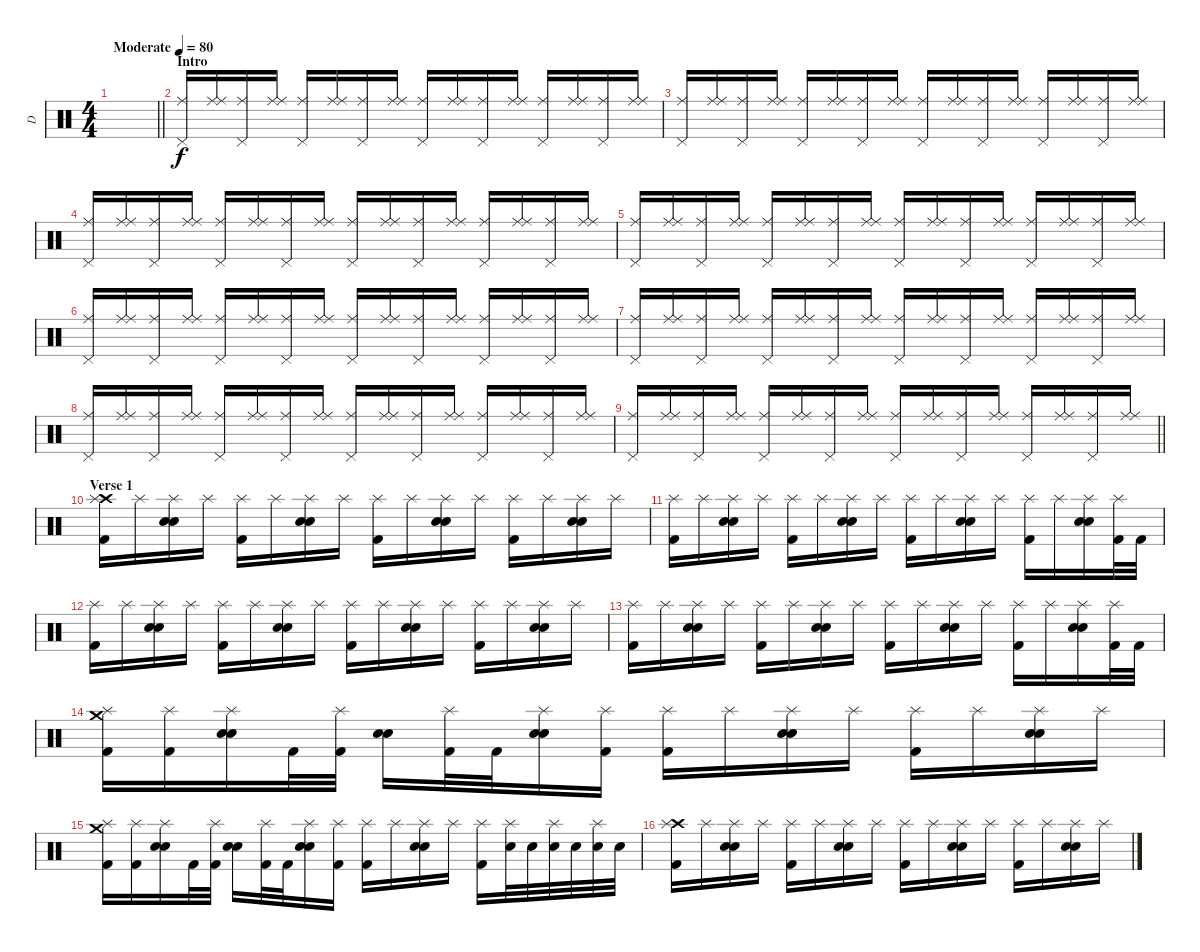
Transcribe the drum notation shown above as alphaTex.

\track ("D" "D") {instrument percussion}
\staff {score}
\articulation defaults
\ts (4 4)
\tempo (80 "Moderate")
\clef neutral
\barLineRight lightlight
\ks c
|
\section ("" "Intro")
("Pedal Hi-Hat (hit)" "Ride (middle)").16 ("Ride (middle)" "Ride (middle)").16 ("Pedal Hi-Hat (hit)" "Ride (middle)").16 ("Ride (middle)" "Ride (middle)").16 ("Pedal Hi-Hat (hit)" "Ride (middle)").16 ("Ride (middle)" "Ride (middle)").16 ("Pedal Hi-Hat (hit)" "Ride (middle)").16 ("Ride (middle)" "Ride (middle)").16 ("Pedal Hi-Hat (hit)" "Ride (middle)").16 ("Ride (middle)" "Ride (middle)").16 ("Pedal Hi-Hat (hit)" "Ride (middle)").16 ("Ride (middle)" "Ride (middle)").16 ("Pedal Hi-Hat (hit)" "Ride (middle)").16 ("Ride (middle)" "Ride (middle)").16 ("Pedal Hi-Hat (hit)" "Ride (middle)").16 ("Ride (middle)" "Ride (middle)").16 |
("Pedal Hi-Hat (hit)" "Ride (middle)").16 ("Ride (middle)" "Ride (middle)").16 ("Pedal Hi-Hat (hit)" "Ride (middle)").16 ("Ride (middle)" "Ride (middle)").16 ("Pedal Hi-Hat (hit)" "Ride (middle)").16 ("Ride (middle)" "Ride (middle)").16 ("Pedal Hi-Hat (hit)" "Ride (middle)").16 ("Ride (middle)" "Ride (middle)").16 ("Pedal Hi-Hat (hit)" "Ride (middle)").16 ("Ride (middle)" "Ride (middle)").16 ("Pedal Hi-Hat (hit)" "Ride (middle)").16 ("Ride (middle)" "Ride (middle)").16 ("Pedal Hi-Hat (hit)" "Ride (middle)").16 ("Ride (middle)" "Ride (middle)").16 ("Pedal Hi-Hat (hit)" "Ride (middle)").16 ("Ride (middle)" "Ride (middle)").16 |
("Pedal Hi-Hat (hit)" "Ride (middle)").16 ("Ride (middle)" "Ride (middle)").16 ("Pedal Hi-Hat (hit)" "Ride (middle)").16 ("Ride (middle)" "Ride (middle)").16 ("Pedal Hi-Hat (hit)" "Ride (middle)").16 ("Ride (middle)" "Ride (middle)").16 ("Pedal Hi-Hat (hit)" "Ride (middle)").16 ("Ride (middle)" "Ride (middle)").16 ("Pedal Hi-Hat (hit)" "Ride (middle)").16 ("Ride (middle)" "Ride (middle)").16 ("Pedal Hi-Hat (hit)" "Ride (middle)").16 ("Ride (middle)" "Ride (middle)").16 ("Pedal Hi-Hat (hit)" "Ride (middle)").16 ("Ride (middle)" "Ride (middle)").16 ("Pedal Hi-Hat (hit)" "Ride (middle)").16 ("Ride (middle)" "Ride (middle)").16 |
("Pedal Hi-Hat (hit)" "Ride (middle)").16 ("Ride (middle)" "Ride (middle)").16 ("Pedal Hi-Hat (hit)" "Ride (middle)").16 ("Ride (middle)" "Ride (middle)").16 ("Pedal Hi-Hat (hit)" "Ride (middle)").16 ("Ride (middle)" "Ride (middle)").16 ("Pedal Hi-Hat (hit)" "Ride (middle)").16 ("Ride (middle)" "Ride (middle)").16 ("Pedal Hi-Hat (hit)" "Ride (middle)").16 ("Ride (middle)" "Ride (middle)").16 ("Pedal Hi-Hat (hit)" "Ride (middle)").16 ("Ride (middle)" "Ride (middle)").16 ("Pedal Hi-Hat (hit)" "Ride (middle)").16 ("Ride (middle)" "Ride (middle)").16 ("Pedal Hi-Hat (hit)" "Ride (middle)").16 ("Ride (middle)" "Ride (middle)").16 |
("Pedal Hi-Hat (hit)" "Ride (middle)").16 ("Ride (middle)" "Ride (middle)").16 ("Pedal Hi-Hat (hit)" "Ride (middle)").16 ("Ride (middle)" "Ride (middle)").16 ("Pedal Hi-Hat (hit)" "Ride (middle)").16 ("Ride (middle)" "Ride (middle)").16 ("Pedal Hi-Hat (hit)" "Ride (middle)").16 ("Ride (middle)" "Ride (middle)").16 ("Pedal Hi-Hat (hit)" "Ride (middle)").16 ("Ride (middle)" "Ride (middle)").16 ("Pedal Hi-Hat (hit)" "Ride (middle)").16 ("Ride (middle)" "Ride (middle)").16 ("Pedal Hi-Hat (hit)" "Ride (middle)").16 ("Ride (middle)" "Ride (middle)").16 ("Pedal Hi-Hat (hit)" "Ride (middle)").16 ("Ride (middle)" "Ride (middle)").16 |
("Pedal Hi-Hat (hit)" "Ride (middle)").16 ("Ride (middle)" "Ride (middle)").16 ("Pedal Hi-Hat (hit)" "Ride (middle)").16 ("Ride (middle)" "Ride (middle)").16 ("Pedal Hi-Hat (hit)" "Ride (middle)").16 ("Ride (middle)" "Ride (middle)").16 ("Pedal Hi-Hat (hit)" "Ride (middle)").16 ("Ride (middle)" "Ride (middle)").16 ("Pedal Hi-Hat (hit)" "Ride (middle)").16 ("Ride (middle)" "Ride (middle)").16 ("Pedal Hi-Hat (hit)" "Ride (middle)").16 ("Ride (middle)" "Ride (middle)").16 ("Pedal Hi-Hat (hit)" "Ride (middle)").16 ("Ride (middle)" "Ride (middle)").16 ("Pedal Hi-Hat (hit)" "Ride (middle)").16 ("Ride (middle)" "Ride (middle)").16 |
("Pedal Hi-Hat (hit)" "Ride (middle)").16 ("Ride (middle)" "Ride (middle)").16 ("Pedal Hi-Hat (hit)" "Ride (middle)").16 ("Ride (middle)" "Ride (middle)").16 ("Pedal Hi-Hat (hit)" "Ride (middle)").16 ("Ride (middle)" "Ride (middle)").16 ("Pedal Hi-Hat (hit)" "Ride (middle)").16 ("Ride (middle)" "Ride (middle)").16 ("Pedal Hi-Hat (hit)" "Ride (middle)").16 ("Ride (middle)" "Ride (middle)").16 ("Pedal Hi-Hat (hit)" "Ride (middle)").16 ("Ride (middle)" "Ride (middle)").16 ("Pedal Hi-Hat (hit)" "Ride (middle)").16 ("Ride (middle)" "Ride (middle)").16 ("Pedal Hi-Hat (hit)" "Ride (middle)").16 ("Ride (middle)" "Ride (middle)").16 |
\barLineRight lightlight
("Pedal Hi-Hat (hit)" "Ride (middle)").16 ("Ride (middle)" "Ride (middle)").16 ("Pedal Hi-Hat (hit)" "Ride (middle)").16 ("Ride (middle)" "Ride (middle)").16 ("Pedal Hi-Hat (hit)" "Ride (middle)").16 ("Ride (middle)" "Ride (middle)").16 ("Pedal Hi-Hat (hit)" "Ride (middle)").16 ("Ride (middle)" "Ride (middle)").16 ("Pedal Hi-Hat (hit)" "Ride (middle)").16 ("Ride (middle)" "Ride (middle)").16 ("Pedal Hi-Hat (hit)" "Ride (middle)").16 ("Ride (middle)" "Ride (middle)").16 ("Pedal Hi-Hat (hit)" "Ride (middle)").16 ("Ride (middle)" "Ride (middle)").16 ("Pedal Hi-Hat (hit)" "Ride (middle)").16 ("Ride (middle)" "Ride (middle)").16 |
\section ("" "Verse 1")
("Crash high (hit)" "Kick (hit) 2" "Splash (hit)").16 "Splash (hit)".16 ("Electric Snare (hit)" "Electric Snare (hit)" "Splash (hit)").16 "Splash (hit)".16 ("Kick (hit) 2" "Splash (hit)").16 "Splash (hit)".16 ("Electric Snare (hit)" "Electric Snare (hit)" "Splash (hit)").16 "Splash (hit)".16 ("Kick (hit) 2" "Splash (hit)").16 "Splash (hit)".16 ("Electric Snare (hit)" "Electric Snare (hit)" "Splash (hit)").16 "Splash (hit)".16 ("Kick (hit) 2" "Splash (hit)").16 "Splash (hit)".16 ("Electric Snare (hit)" "Electric Snare (hit)" "Splash (hit)").16 "Splash (hit)".16 |
("Kick (hit) 2" "Splash (hit)").16 "Splash (hit)".16 ("Electric Snare (hit)" "Electric Snare (hit)" "Splash (hit)").16 "Splash (hit)".16 ("Kick (hit) 2" "Splash (hit)").16 "Splash (hit)".16 ("Electric Snare (hit)" "Electric Snare (hit)" "Splash (hit)").16 "Splash (hit)".16 ("Kick (hit) 2" "Splash (hit)").16 "Splash (hit)".16 ("Electric Snare (hit)" "Electric Snare (hit)" "Splash (hit)").16 "Splash (hit)".16 ("Kick (hit) 2" "Splash (hit)").16 "Splash (hit)".16 ("Electric Snare (hit)" "Electric Snare (hit)" "Splash (hit)").16 ("Kick (hit) 2" "Splash (hit)").32 "Kick (hit) 2".32 |
("Kick (hit) 2" "Splash (hit)").16 "Splash (hit)".16 ("Electric Snare (hit)" "Electric Snare (hit)" "Splash (hit)").16 "Splash (hit)".16 ("Kick (hit) 2" "Splash (hit)").16 "Splash (hit)".16 ("Electric Snare (hit)" "Electric Snare (hit)" "Splash (hit)").16 "Splash (hit)".16 ("Kick (hit) 2" "Splash (hit)").16 "Splash (hit)".16 ("Electric Snare (hit)" "Electric Snare (hit)" "Splash (hit)").16 "Splash (hit)".16 ("Kick (hit) 2" "Splash (hit)").16 "Splash (hit)".16 ("Electric Snare (hit)" "Electric Snare (hit)" "Splash (hit)").16 "Splash (hit)".16 |
("Kick (hit) 2" "Splash (hit)").16 "Splash (hit)".16 ("Electric Snare (hit)" "Electric Snare (hit)" "Splash (hit)").16 "Splash (hit)".16 ("Kick (hit) 2" "Splash (hit)").16 "Splash (hit)".16 ("Electric Snare (hit)" "Electric Snare (hit)" "Splash (hit)").16 "Splash (hit)".16 ("Kick (hit) 2" "Splash (hit)").16 "Splash (hit)".16 ("Electric Snare (hit)" "Electric Snare (hit)" "Splash (hit)").16 "Splash (hit)".16 ("Kick (hit) 2" "Splash (hit)").16 "Splash (hit)".16 ("Electric Snare (hit)" "Electric Snare (hit)" "Splash (hit)").16 ("Kick (hit) 2" "Splash (hit)").32 "Kick (hit) 2".32 |
("Crash medium (hit)" "Kick (hit) 2" "Splash (hit)").16 ("Kick (hit) 2" "Splash (hit)").16 ("Electric Snare (hit)" "Electric Snare (hit)" "Splash (hit)").16 "Kick (hit) 2".32 ("Kick (hit) 2" "Splash (hit)").32 ("Electric Snare (hit)" "Electric Snare (hit)").16 ("Kick (hit) 2" "Splash (hit)").32 "Kick (hit) 2".32 ("Electric Snare (hit)" "Electric Snare (hit)" "Splash (hit)").16 ("Kick (hit) 2" "Splash (hit)").16 ("Kick (hit) 2" "Splash (hit)").16 "Splash (hit)".16 ("Electric Snare (hit)" "Electric Snare (hit)" "Splash (hit)").16 "Splash (hit)".16 ("Kick (hit) 2" "Splash (hit)").16 "Splash (hit)".16 ("Electric Snare (hit)" "Electric Snare (hit)" "Splash (hit)").16 "Splash (hit)".16 |
("Crash medium (hit)" "Kick (hit) 2" "Splash (hit)").16 ("Kick (hit) 2" "Splash (hit)").16 ("Electric Snare (hit)" "Electric Snare (hit)" "Splash (hit)").16 "Kick (hit) 2".32 ("Kick (hit) 2" "Splash (hit)").32 ("Electric Snare (hit)" "Electric Snare (hit)").16 ("Kick (hit) 2" "Splash (hit)").32 "Kick (hit) 2".32 ("Electric Snare (hit)" "Electric Snare (hit)" "Splash (hit)").16 ("Kick (hit) 2" "Splash (hit)").16 ("Kick (hit) 2" "Splash (hit)").16 "Splash (hit)".16 ("Electric Snare (hit)" "Electric Snare (hit)" "Splash (hit)").16 "Splash (hit)".16 ("Kick (hit) 2" "Splash (hit)").16 ("Electric Snare (hit)" "Splash (hit)").32 "Electric Snare (hit)".32 ("Electric Snare (hit)" "Splash (hit)").32 "Electric Snare (hit)".32 ("Electric Snare (hit)" "Splash (hit)").32 "Electric Snare (hit)".32 |
("Crash high (hit)" "Kick (hit) 2" "Splash (hit)").16 "Splash (hit)".16 ("Electric Snare (hit)" "Electric Snare (hit)" "Splash (hit)").16 "Splash (hit)".16 ("Kick (hit) 2" "Splash (hit)").16 "Splash (hit)".16 ("Electric Snare (hit)" "Electric Snare (hit)" "Splash (hit)").16 "Splash (hit)".16 ("Kick (hit) 2" "Splash (hit)").16 "Splash (hit)".16 ("Electric Snare (hit)" "Electric Snare (hit)" "Splash (hit)").16 "Splash (hit)".16 ("Kick (hit) 2" "Splash (hit)").16 "Splash (hit)".16 ("Electric Snare (hit)" "Electric Snare (hit)" "Splash (hit)").16 "Splash (hit)".16
